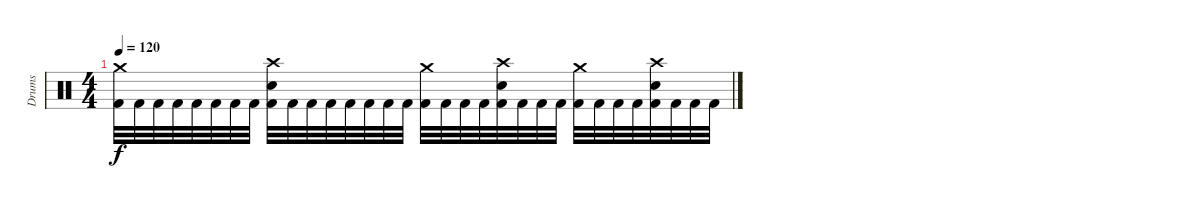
\track ("Drums" "Drums") {instrument percussion}
\staff {score}
\articulation defaults
\ts (4 4)
\tempo 120
\clef neutral
\ks c
("Kick (hit) 2" "Crash medium (hit)").32{dy f} "Kick (hit) 2".32 "Kick (hit) 2".32 "Kick (hit) 2".32 "Kick (hit) 2".32 "Kick (hit) 2".32 "Kick (hit) 2".32 "Kick (hit) 2".32 ("Kick (hit) 2" "Electric Snare (hit)" "Crash high (hit)").32 "Kick (hit) 2".32 "Kick (hit) 2".32 "Kick (hit) 2".32 "Kick (hit) 2".32 "Kick (hit) 2".32 "Kick (hit) 2".32 "Kick (hit) 2".32 ("Kick (hit) 2" "Crash medium (hit)").32 "Kick (hit) 2".32 "Kick (hit) 2".32 "Kick (hit) 2".32 ("Kick (hit) 2" "Electric Snare (hit)" "Crash high (hit)").32 "Kick (hit) 2".32 "Kick (hit) 2".32 "Kick (hit) 2".32 ("Kick (hit) 2" "Crash medium (hit)").32 "Kick (hit) 2".32 "Kick (hit) 2".32 "Kick (hit) 2".32 ("Kick (hit) 2" "Electric Snare (hit)" "Crash high (hit)").32 "Kick (hit) 2".32 "Kick (hit) 2".32 "Kick (hit) 2".32
